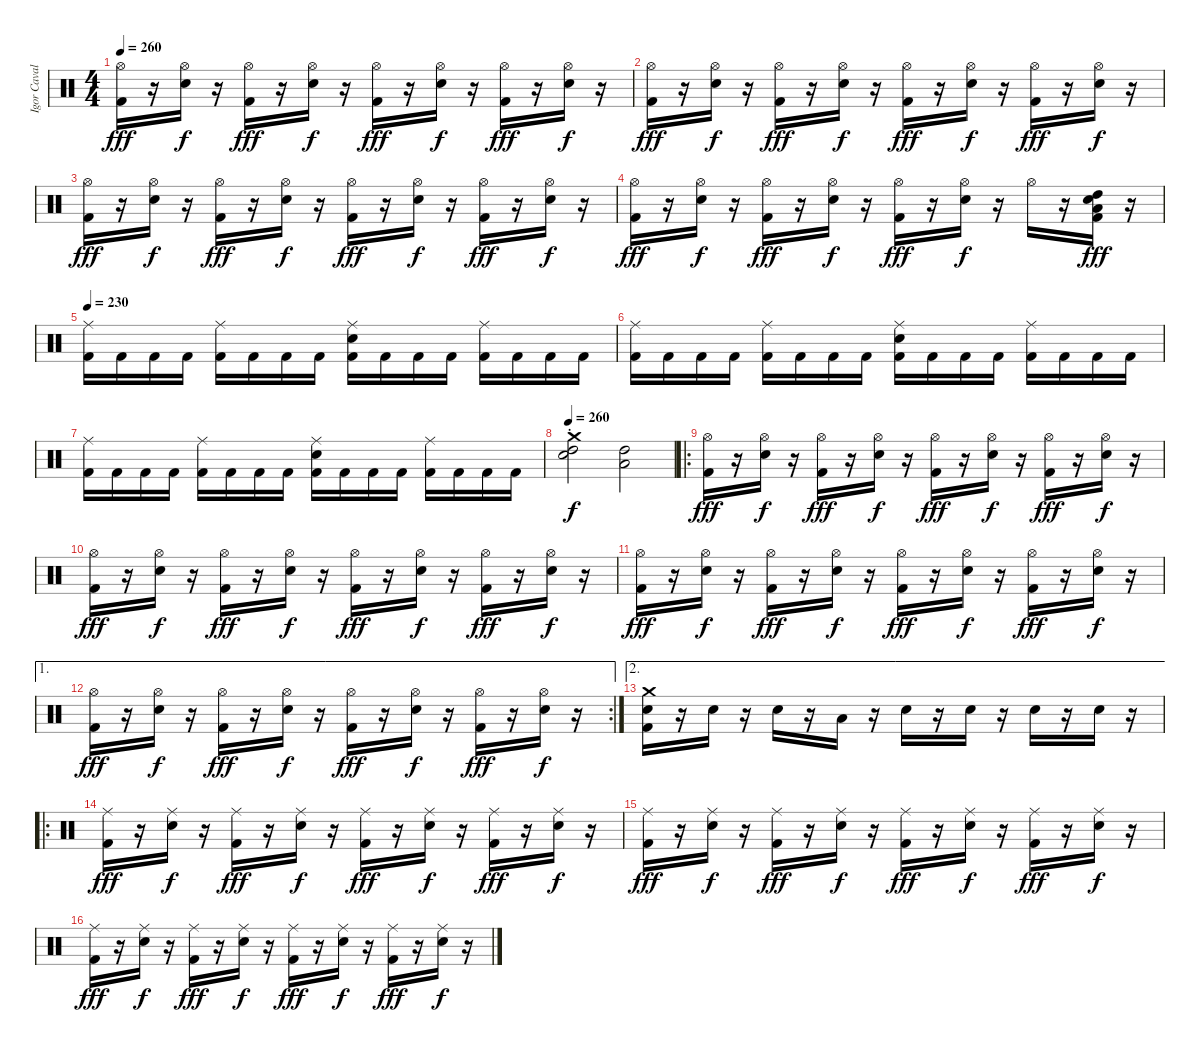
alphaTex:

\track ("Igor Cavalera" "Igor Caval") {instrument percussion}
\staff {score}
\articulation defaults
\ts (4 4)
\tempo 260
\clef neutral
\ks c
("Hi-Hat (open)" "Kick (hit) 2").16{dy fff} r.16 ("Electric Snare (hit)" "Hi-Hat (open)").16{dy f} r.16 ("Hi-Hat (open)" "Kick (hit) 2").16{dy fff} r.16 ("Electric Snare (hit)" "Hi-Hat (open)").16{dy f} r.16 ("Hi-Hat (open)" "Kick (hit) 2").16{dy fff} r.16 ("Electric Snare (hit)" "Hi-Hat (open)").16{dy f} r.16 ("Hi-Hat (open)" "Kick (hit) 2").16{dy fff} r.16 ("Electric Snare (hit)" "Hi-Hat (open)").16{dy f} r.16 |
("Hi-Hat (open)" "Kick (hit) 2").16{dy fff} r.16 ("Electric Snare (hit)" "Hi-Hat (open)").16{dy f} r.16 ("Hi-Hat (open)" "Kick (hit) 2").16{dy fff} r.16 ("Electric Snare (hit)" "Hi-Hat (open)").16{dy f} r.16 ("Hi-Hat (open)" "Kick (hit) 2").16{dy fff} r.16 ("Electric Snare (hit)" "Hi-Hat (open)").16{dy f} r.16 ("Hi-Hat (open)" "Kick (hit) 2").16{dy fff} r.16 ("Electric Snare (hit)" "Hi-Hat (open)").16{dy f} r.16 |
("Hi-Hat (open)" "Kick (hit) 2").16{dy fff} r.16 ("Electric Snare (hit)" "Hi-Hat (open)").16{dy f} r.16 ("Hi-Hat (open)" "Kick (hit) 2").16{dy fff} r.16 ("Electric Snare (hit)" "Hi-Hat (open)").16{dy f} r.16 ("Hi-Hat (open)" "Kick (hit) 2").16{dy fff} r.16 ("Electric Snare (hit)" "Hi-Hat (open)").16{dy f} r.16 ("Hi-Hat (open)" "Kick (hit) 2").16{dy fff} r.16 ("Electric Snare (hit)" "Hi-Hat (open)").16{dy f} r.16 |
("Hi-Hat (open)" "Kick (hit) 2").16{dy fff} r.16 ("Electric Snare (hit)" "Hi-Hat (open)").16{dy f} r.16 ("Hi-Hat (open)" "Kick (hit) 2").16{dy fff} r.16 ("Electric Snare (hit)" "Hi-Hat (open)").16{dy f} r.16 ("Hi-Hat (open)" "Kick (hit) 2").16{dy fff} r.16 ("Electric Snare (hit)" "Hi-Hat (open)").16{dy f} r.16 "Hi-Hat (open)".16 r.16 ("High Tom (hit)" "Low Tom (hit)" "Electric Snare (hit)" "Kick (hit) 2").16{dy fff} r.16 |
\tempo 230
("Ride (middle)" "Kick (hit) 2").16 "Kick (hit) 2".16 "Kick (hit) 2".16 "Kick (hit) 2".16 ("Ride (middle)" "Kick (hit) 2").16 "Kick (hit) 2".16 "Kick (hit) 2".16 "Kick (hit) 2".16 ("Electric Snare (hit)" "Ride (middle)" "Kick (hit) 2").16 "Kick (hit) 2".16 "Kick (hit) 2".16 "Kick (hit) 2".16 ("Ride (middle)" "Kick (hit) 2").16 "Kick (hit) 2".16 "Kick (hit) 2".16 "Kick (hit) 2".16 |
("Ride (middle)" "Kick (hit) 2").16 "Kick (hit) 2".16 "Kick (hit) 2".16 "Kick (hit) 2".16 ("Ride (middle)" "Kick (hit) 2").16 "Kick (hit) 2".16 "Kick (hit) 2".16 "Kick (hit) 2".16 ("Electric Snare (hit)" "Ride (middle)" "Kick (hit) 2").16 "Kick (hit) 2".16 "Kick (hit) 2".16 "Kick (hit) 2".16 ("Ride (middle)" "Kick (hit) 2").16 "Kick (hit) 2".16 "Kick (hit) 2".16 "Kick (hit) 2".16 |
("Ride (middle)" "Kick (hit) 2").16 "Kick (hit) 2".16 "Kick (hit) 2".16 "Kick (hit) 2".16 ("Ride (middle)" "Kick (hit) 2").16 "Kick (hit) 2".16 "Kick (hit) 2".16 "Kick (hit) 2".16 ("Electric Snare (hit)" "Ride (middle)" "Kick (hit) 2").16 "Kick (hit) 2".16 "Kick (hit) 2".16 "Kick (hit) 2".16 ("Ride (middle)" "Kick (hit) 2").16 "Kick (hit) 2".16 "Kick (hit) 2".16 "Kick (hit) 2".16 |
\tempo 260
("Crash medium (hit)"{st} "High Tom (hit)" "Electric Snare (hit)").2{dy f} ("High Tom (hit)" "Low Tom (hit)").2 |
\ro
("Hi-Hat (open)" "Kick (hit) 2").16{dy fff} r.16 ("Electric Snare (hit)" "Hi-Hat (open)").16{dy f} r.16 ("Hi-Hat (open)" "Kick (hit) 2").16{dy fff} r.16 ("Electric Snare (hit)" "Hi-Hat (open)").16{dy f} r.16 ("Hi-Hat (open)" "Kick (hit) 2").16{dy fff} r.16 ("Electric Snare (hit)" "Hi-Hat (open)").16{dy f} r.16 ("Hi-Hat (open)" "Kick (hit) 2").16{dy fff} r.16 ("Electric Snare (hit)" "Hi-Hat (open)").16{dy f} r.16 |
("Hi-Hat (open)" "Kick (hit) 2").16{dy fff} r.16 ("Electric Snare (hit)" "Hi-Hat (open)").16{dy f} r.16 ("Hi-Hat (open)" "Kick (hit) 2").16{dy fff} r.16 ("Electric Snare (hit)" "Hi-Hat (open)").16{dy f} r.16 ("Hi-Hat (open)" "Kick (hit) 2").16{dy fff} r.16 ("Electric Snare (hit)" "Hi-Hat (open)").16{dy f} r.16 ("Hi-Hat (open)" "Kick (hit) 2").16{dy fff} r.16 ("Electric Snare (hit)" "Hi-Hat (open)").16{dy f} r.16 |
("Hi-Hat (open)" "Kick (hit) 2").16{dy fff} r.16 ("Electric Snare (hit)" "Hi-Hat (open)").16{dy f} r.16 ("Hi-Hat (open)" "Kick (hit) 2").16{dy fff} r.16 ("Electric Snare (hit)" "Hi-Hat (open)").16{dy f} r.16 ("Hi-Hat (open)" "Kick (hit) 2").16{dy fff} r.16 ("Electric Snare (hit)" "Hi-Hat (open)").16{dy f} r.16 ("Hi-Hat (open)" "Kick (hit) 2").16{dy fff} r.16 ("Electric Snare (hit)" "Hi-Hat (open)").16{dy f} r.16 |
\ae 1
\rc 2
("Hi-Hat (open)" "Kick (hit) 2").16{dy fff} r.16 ("Electric Snare (hit)" "Hi-Hat (open)").16{dy f} r.16 ("Hi-Hat (open)" "Kick (hit) 2").16{dy fff} r.16 ("Electric Snare (hit)" "Hi-Hat (open)").16{dy f} r.16 ("Hi-Hat (open)" "Kick (hit) 2").16{dy fff} r.16 ("Electric Snare (hit)" "Hi-Hat (open)").16{dy f} r.16 ("Hi-Hat (open)" "Kick (hit) 2").16{dy fff} r.16 ("Electric Snare (hit)" "Hi-Hat (open)").16{dy f} r.16 |
\ae 2
("Crash medium (hit)" "Electric Snare (hit)" "Kick (hit) 2").16 r.16 "Electric Snare (hit)".16 r.16 "Electric Snare (hit)".16 r.16 "Low Tom (hit)".16 r.16 "Electric Snare (hit)".16 r.16 "Electric Snare (hit)".16 r.16 "Electric Snare (hit)".16 r.16 "Electric Snare (hit)".16 r.16 |
\ro
("Ride (middle)" "Kick (hit) 2").16{dy fff} r.16 ("Electric Snare (hit)" "Ride (middle)").16{dy f} r.16 ("Ride (middle)" "Kick (hit) 2").16{dy fff} r.16 ("Electric Snare (hit)" "Ride (middle)").16{dy f} r.16 ("Ride (middle)" "Kick (hit) 2").16{dy fff} r.16 ("Electric Snare (hit)" "Ride (middle)").16{dy f} r.16 ("Ride (middle)" "Kick (hit) 2").16{dy fff} r.16 ("Electric Snare (hit)" "Ride (middle)").16{dy f} r.16 |
("Ride (middle)" "Kick (hit) 2").16{dy fff} r.16 ("Electric Snare (hit)" "Ride (middle)").16{dy f} r.16 ("Ride (middle)" "Kick (hit) 2").16{dy fff} r.16 ("Electric Snare (hit)" "Ride (middle)").16{dy f} r.16 ("Ride (middle)" "Kick (hit) 2").16{dy fff} r.16 ("Electric Snare (hit)" "Ride (middle)").16{dy f} r.16 ("Ride (middle)" "Kick (hit) 2").16{dy fff} r.16 ("Electric Snare (hit)" "Ride (middle)").16{dy f} r.16 |
("Ride (middle)" "Kick (hit) 2").16{dy fff} r.16 ("Electric Snare (hit)" "Ride (middle)").16{dy f} r.16 ("Ride (middle)" "Kick (hit) 2").16{dy fff} r.16 ("Electric Snare (hit)" "Ride (middle)").16{dy f} r.16 ("Ride (middle)" "Kick (hit) 2").16{dy fff} r.16 ("Electric Snare (hit)" "Ride (middle)").16{dy f} r.16 ("Ride (middle)" "Kick (hit) 2").16{dy fff} r.16 ("Electric Snare (hit)" "Ride (middle)").16{dy f} r.16
